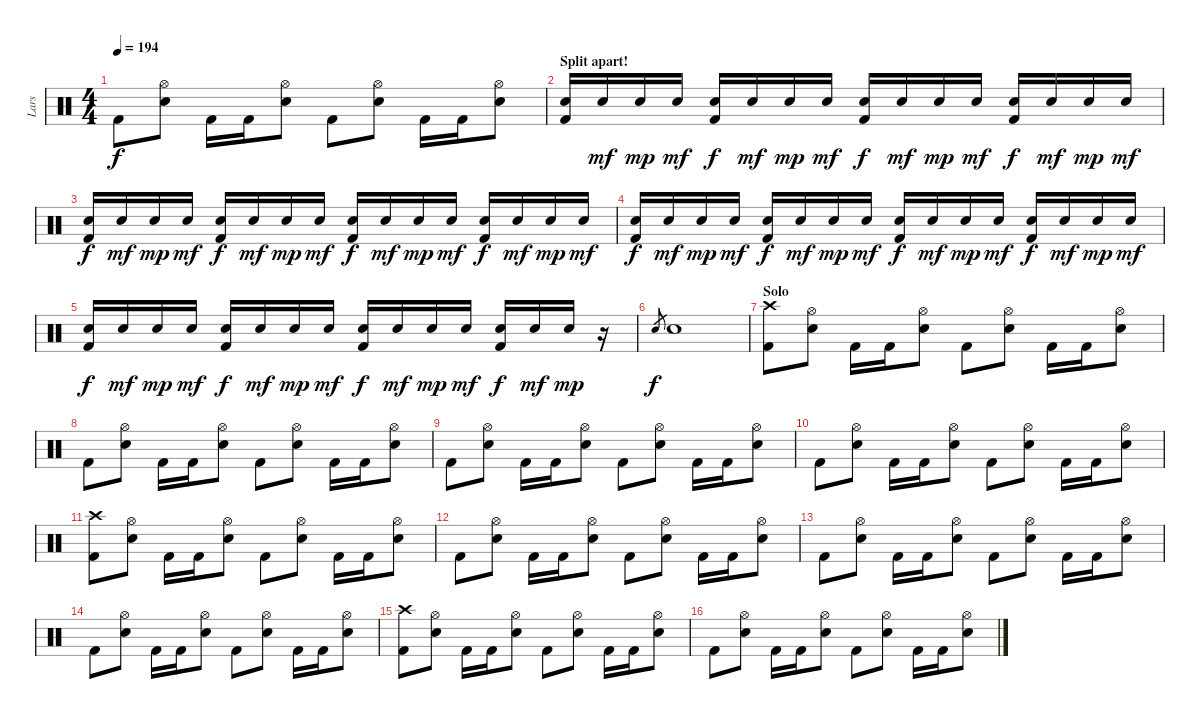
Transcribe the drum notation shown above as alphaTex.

\track ("Lars" "Lars") {instrument percussion}
\staff {score}
\articulation defaults
\ts (4 4)
\tempo 194
\clef neutral
\ks c "Kick (hit) 2".8{dy f}
("Electric Snare (hit)" "Hi-Hat (open)").8 "Kick (hit) 2".16 "Kick (hit) 2".16 ("Electric Snare (hit)" "Hi-Hat (open)").8 "Kick (hit) 2".8 ("Electric Snare (hit)" "Hi-Hat (open)").8 "Kick (hit) 2".16 "Kick (hit) 2".16 ("Electric Snare (hit)" "Hi-Hat (open)").8 |
\section ("" "Split apart!")
("Electric Snare (hit)" "Kick (hit) 2").16 "Electric Snare (hit)".16{dy mf} "Electric Snare (hit)".16{dy mp} "Electric Snare (hit)".16{dy mf} ("Electric Snare (hit)" "Kick (hit) 2").16{dy f} "Electric Snare (hit)".16{dy mf} "Electric Snare (hit)".16{dy mp} "Electric Snare (hit)".16{dy mf} ("Electric Snare (hit)" "Kick (hit) 2").16{dy f} "Electric Snare (hit)".16{dy mf} "Electric Snare (hit)".16{dy mp} "Electric Snare (hit)".16{dy mf} ("Electric Snare (hit)" "Kick (hit) 2").16{dy f} "Electric Snare (hit)".16{dy mf} "Electric Snare (hit)".16{dy mp} "Electric Snare (hit)".16{dy mf} |
("Electric Snare (hit)" "Kick (hit) 2").16{dy f} "Electric Snare (hit)".16{dy mf} "Electric Snare (hit)".16{dy mp} "Electric Snare (hit)".16{dy mf} ("Electric Snare (hit)" "Kick (hit) 2").16{dy f} "Electric Snare (hit)".16{dy mf} "Electric Snare (hit)".16{dy mp} "Electric Snare (hit)".16{dy mf} ("Electric Snare (hit)" "Kick (hit) 2").16{dy f} "Electric Snare (hit)".16{dy mf} "Electric Snare (hit)".16{dy mp} "Electric Snare (hit)".16{dy mf} ("Electric Snare (hit)" "Kick (hit) 2").16{dy f} "Electric Snare (hit)".16{dy mf} "Electric Snare (hit)".16{dy mp} "Electric Snare (hit)".16{dy mf} |
("Electric Snare (hit)" "Kick (hit) 2").16{dy f} "Electric Snare (hit)".16{dy mf} "Electric Snare (hit)".16{dy mp} "Electric Snare (hit)".16{dy mf} ("Electric Snare (hit)" "Kick (hit) 2").16{dy f} "Electric Snare (hit)".16{dy mf} "Electric Snare (hit)".16{dy mp} "Electric Snare (hit)".16{dy mf} ("Electric Snare (hit)" "Kick (hit) 2").16{dy f} "Electric Snare (hit)".16{dy mf} "Electric Snare (hit)".16{dy mp} "Electric Snare (hit)".16{dy mf} ("Electric Snare (hit)" "Kick (hit) 2").16{dy f} "Electric Snare (hit)".16{dy mf} "Electric Snare (hit)".16{dy mp} "Electric Snare (hit)".16{dy mf} |
("Electric Snare (hit)" "Kick (hit) 2").16{dy f} "Electric Snare (hit)".16{dy mf} "Electric Snare (hit)".16{dy mp} "Electric Snare (hit)".16{dy mf} ("Electric Snare (hit)" "Kick (hit) 2").16{dy f} "Electric Snare (hit)".16{dy mf} "Electric Snare (hit)".16{dy mp} "Electric Snare (hit)".16{dy mf} ("Electric Snare (hit)" "Kick (hit) 2").16{dy f} "Electric Snare (hit)".16{dy mf} "Electric Snare (hit)".16{dy mp} "Electric Snare (hit)".16{dy mf} ("Electric Snare (hit)" "Kick (hit) 2").16{dy f} "Electric Snare (hit)".16{dy mf} "Electric Snare (hit)".16{dy mp} r.16 |
"Electric Snare (hit)".8{gr dy f} "Electric Snare (hit)".1 |
\section ("" "Solo")
("Kick (hit) 2" "Crash high (hit)").8 ("Electric Snare (hit)" "Hi-Hat (open)").8 "Kick (hit) 2".16 "Kick (hit) 2".16 ("Electric Snare (hit)" "Hi-Hat (open)").8 "Kick (hit) 2".8 ("Electric Snare (hit)" "Hi-Hat (open)").8 "Kick (hit) 2".16 "Kick (hit) 2".16 ("Electric Snare (hit)" "Hi-Hat (open)").8 |
"Kick (hit) 2".8 ("Electric Snare (hit)" "Hi-Hat (open)").8 "Kick (hit) 2".16 "Kick (hit) 2".16 ("Electric Snare (hit)" "Hi-Hat (open)").8 "Kick (hit) 2".8 ("Electric Snare (hit)" "Hi-Hat (open)").8 "Kick (hit) 2".16 "Kick (hit) 2".16 ("Electric Snare (hit)" "Hi-Hat (open)").8 |
"Kick (hit) 2".8 ("Electric Snare (hit)" "Hi-Hat (open)").8 "Kick (hit) 2".16 "Kick (hit) 2".16 ("Electric Snare (hit)" "Hi-Hat (open)").8 "Kick (hit) 2".8 ("Electric Snare (hit)" "Hi-Hat (open)").8 "Kick (hit) 2".16 "Kick (hit) 2".16 ("Electric Snare (hit)" "Hi-Hat (open)").8 |
"Kick (hit) 2".8 ("Electric Snare (hit)" "Hi-Hat (open)").8 "Kick (hit) 2".16 "Kick (hit) 2".16 ("Electric Snare (hit)" "Hi-Hat (open)").8 "Kick (hit) 2".8 ("Electric Snare (hit)" "Hi-Hat (open)").8 "Kick (hit) 2".16 "Kick (hit) 2".16 ("Electric Snare (hit)" "Hi-Hat (open)").8 |
("Kick (hit) 2" "Crash high (hit)").8 ("Electric Snare (hit)" "Hi-Hat (open)").8 "Kick (hit) 2".16 "Kick (hit) 2".16 ("Electric Snare (hit)" "Hi-Hat (open)").8 "Kick (hit) 2".8 ("Electric Snare (hit)" "Hi-Hat (open)").8 "Kick (hit) 2".16 "Kick (hit) 2".16 ("Electric Snare (hit)" "Hi-Hat (open)").8 |
"Kick (hit) 2".8 ("Electric Snare (hit)" "Hi-Hat (open)").8 "Kick (hit) 2".16 "Kick (hit) 2".16 ("Electric Snare (hit)" "Hi-Hat (open)").8 "Kick (hit) 2".8 ("Electric Snare (hit)" "Hi-Hat (open)").8 "Kick (hit) 2".16 "Kick (hit) 2".16 ("Electric Snare (hit)" "Hi-Hat (open)").8 |
"Kick (hit) 2".8 ("Electric Snare (hit)" "Hi-Hat (open)").8 "Kick (hit) 2".16 "Kick (hit) 2".16 ("Electric Snare (hit)" "Hi-Hat (open)").8 "Kick (hit) 2".8 ("Electric Snare (hit)" "Hi-Hat (open)").8 "Kick (hit) 2".16 "Kick (hit) 2".16 ("Electric Snare (hit)" "Hi-Hat (open)").8 |
"Kick (hit) 2".8 ("Electric Snare (hit)" "Hi-Hat (open)").8 "Kick (hit) 2".16 "Kick (hit) 2".16 ("Electric Snare (hit)" "Hi-Hat (open)").8 "Kick (hit) 2".8 ("Electric Snare (hit)" "Hi-Hat (open)").8 "Kick (hit) 2".16 "Kick (hit) 2".16 ("Electric Snare (hit)" "Hi-Hat (open)").8 |
("Kick (hit) 2" "Crash high (hit)").8 ("Electric Snare (hit)" "Hi-Hat (open)").8 "Kick (hit) 2".16 "Kick (hit) 2".16 ("Electric Snare (hit)" "Hi-Hat (open)").8 "Kick (hit) 2".8 ("Electric Snare (hit)" "Hi-Hat (open)").8 "Kick (hit) 2".16 "Kick (hit) 2".16 ("Electric Snare (hit)" "Hi-Hat (open)").8 |
"Kick (hit) 2".8 ("Electric Snare (hit)" "Hi-Hat (open)").8 "Kick (hit) 2".16 "Kick (hit) 2".16 ("Electric Snare (hit)" "Hi-Hat (open)").8 "Kick (hit) 2".8 ("Electric Snare (hit)" "Hi-Hat (open)").8 "Kick (hit) 2".16 "Kick (hit) 2".16 ("Electric Snare (hit)" "Hi-Hat (open)").8
